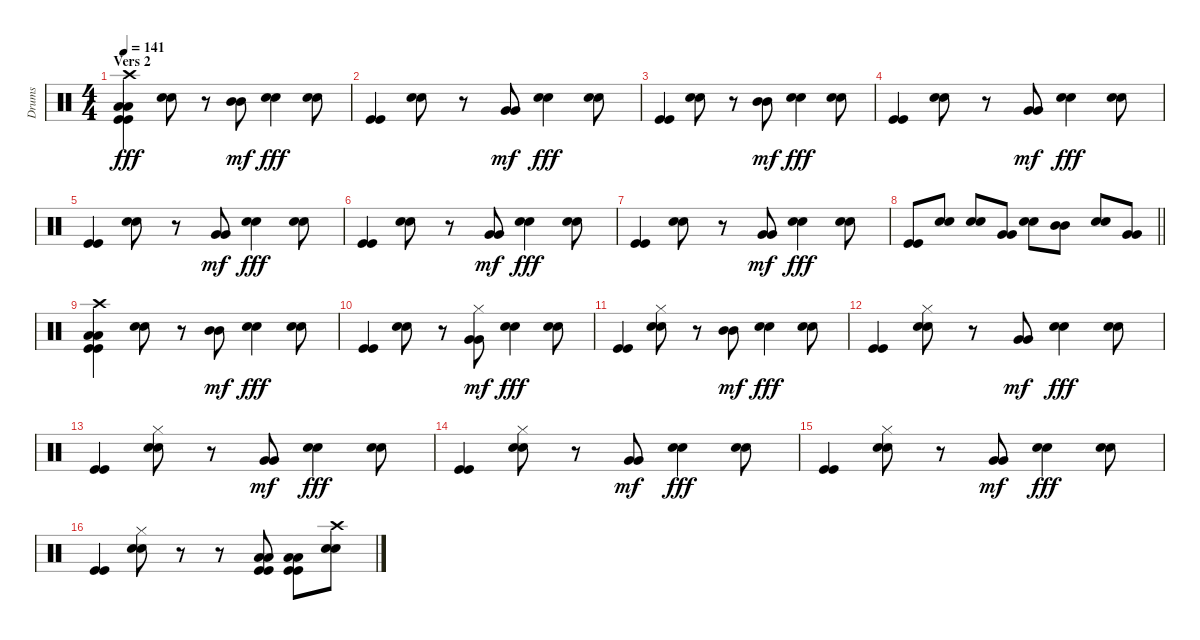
\track ("Drums" "Drums") {instrument percussion}
\staff {score}
\articulation defaults
\ts (4 4)
\section ("" "Vers 2")
\tempo 141
\clef neutral
\ks c
("Crash high (hit)" "Low Floor Tom (hit)" "Low Floor Tom (hit)" "Kick (hit)" "Kick (hit)").4{dy fff} ("Snare (hit) 2" "Snare (hit) 2").8 r.8 ("Mid Tom (hit)" "Mid Tom (hit)").8{dy mf} ("Snare (hit) 2" "Snare (hit) 2").4{dy fff} ("Snare (hit) 2" "Snare (hit) 2").8 |
("Kick (hit)" "Kick (hit)").4 ("Snare (hit) 2" "Snare (hit) 2").8 r.8 ("Very Low Tom (hit)" "Very Low Tom (hit)").8{dy mf} ("Snare (hit) 2" "Snare (hit) 2").4{dy fff} ("Snare (hit) 2" "Snare (hit) 2").8 |
("Kick (hit)" "Kick (hit)").4 ("Snare (hit) 2" "Snare (hit) 2").8 r.8 ("Mid Tom (hit)" "Mid Tom (hit)").8{dy mf} ("Snare (hit) 2" "Snare (hit) 2").4{dy fff} ("Snare (hit) 2" "Snare (hit) 2").8 |
("Kick (hit)" "Kick (hit)").4 ("Snare (hit) 2" "Snare (hit) 2").8 r.8 ("Very Low Tom (hit)" "Very Low Tom (hit)").8{dy mf} ("Snare (hit) 2" "Snare (hit) 2").4{dy fff} ("Snare (hit) 2" "Snare (hit) 2").8 |
("Kick (hit)" "Kick (hit)").4 ("Snare (hit) 2" "Snare (hit) 2").8 r.8 ("Very Low Tom (hit)" "Very Low Tom (hit)").8{dy mf} ("Snare (hit) 2" "Snare (hit) 2").4{dy fff} ("Snare (hit) 2" "Snare (hit) 2").8 |
("Kick (hit)" "Kick (hit)").4 ("Snare (hit) 2" "Snare (hit) 2").8 r.8 ("Very Low Tom (hit)" "Very Low Tom (hit)").8{dy mf} ("Snare (hit) 2" "Snare (hit) 2").4{dy fff} ("Snare (hit) 2" "Snare (hit) 2").8 |
("Kick (hit)" "Kick (hit)").4 ("Snare (hit) 2" "Snare (hit) 2").8 r.8 ("Very Low Tom (hit)" "Very Low Tom (hit)").8{dy mf} ("Snare (hit) 2" "Snare (hit) 2").4{dy fff} ("Snare (hit) 2" "Snare (hit) 2").8 |
\barLineRight lightlight
("Kick (hit)" "Kick (hit)").8 ("Snare (hit) 2" "Snare (hit) 2").8 ("Snare (hit) 2" "Snare (hit) 2").8 ("Very Low Tom (hit)" "Very Low Tom (hit)").8 ("Snare (hit) 2" "Snare (hit) 2").8 ("Mid Tom (hit)" "Mid Tom (hit)").8 ("Snare (hit) 2" "Snare (hit) 2").8 ("Very Low Tom (hit)" "Very Low Tom (hit)").8 |
("Crash high (hit)" "Low Floor Tom (hit)" "Low Floor Tom (hit)" "Kick (hit)" "Kick (hit)").4 ("Snare (hit) 2" "Snare (hit) 2").8 r.8 ("Mid Tom (hit)" "Mid Tom (hit)").8{dy mf} ("Snare (hit) 2" "Snare (hit) 2").4{dy fff} ("Snare (hit) 2" "Snare (hit) 2").8 |
("Kick (hit)" "Kick (hit)").4 ("Snare (hit) 2" "Snare (hit) 2").8 r.8 ("Hi-Hat (closed)" "Very Low Tom (hit)" "Very Low Tom (hit)").8{dy mf} ("Snare (hit) 2" "Snare (hit) 2").4{dy fff} ("Snare (hit) 2" "Snare (hit) 2").8 |
("Kick (hit)" "Kick (hit)").4 ("Hi-Hat (closed)" "Snare (hit) 2" "Snare (hit) 2").8 r.8 ("Mid Tom (hit)" "Mid Tom (hit)").8{dy mf} ("Snare (hit) 2" "Snare (hit) 2").4{dy fff} ("Snare (hit) 2" "Snare (hit) 2").8 |
("Kick (hit)" "Kick (hit)").4 ("Hi-Hat (closed)" "Snare (hit) 2" "Snare (hit) 2").8 r.8 ("Very Low Tom (hit)" "Very Low Tom (hit)").8{dy mf} ("Snare (hit) 2" "Snare (hit) 2").4{dy fff} ("Snare (hit) 2" "Snare (hit) 2").8 |
("Kick (hit)" "Kick (hit)").4 ("Hi-Hat (closed)" "Snare (hit) 2" "Snare (hit) 2").8 r.8 ("Very Low Tom (hit)" "Very Low Tom (hit)").8{dy mf} ("Snare (hit) 2" "Snare (hit) 2").4{dy fff} ("Snare (hit) 2" "Snare (hit) 2").8 |
("Kick (hit)" "Kick (hit)").4 ("Hi-Hat (closed)" "Snare (hit) 2" "Snare (hit) 2").8 r.8 ("Very Low Tom (hit)" "Very Low Tom (hit)").8{dy mf} ("Snare (hit) 2" "Snare (hit) 2").4{dy fff} ("Snare (hit) 2" "Snare (hit) 2").8 |
("Kick (hit)" "Kick (hit)").4 ("Hi-Hat (closed)" "Snare (hit) 2" "Snare (hit) 2").8 r.8 ("Very Low Tom (hit)" "Very Low Tom (hit)").8{dy mf} ("Snare (hit) 2" "Snare (hit) 2").4{dy fff} ("Snare (hit) 2" "Snare (hit) 2").8 |
("Kick (hit)" "Kick (hit)").4 ("Hi-Hat (closed)" "Snare (hit) 2" "Snare (hit) 2").8 r.8 r.8 ("Low Floor Tom (hit)" "Low Floor Tom (hit)" "Kick (hit)" "Kick (hit)").8 ("Low Floor Tom (hit)" "Low Floor Tom (hit)" "Kick (hit)" "Kick (hit)").8 ("Crash high (hit)" "Snare (hit) 2" "Snare (hit) 2").8
